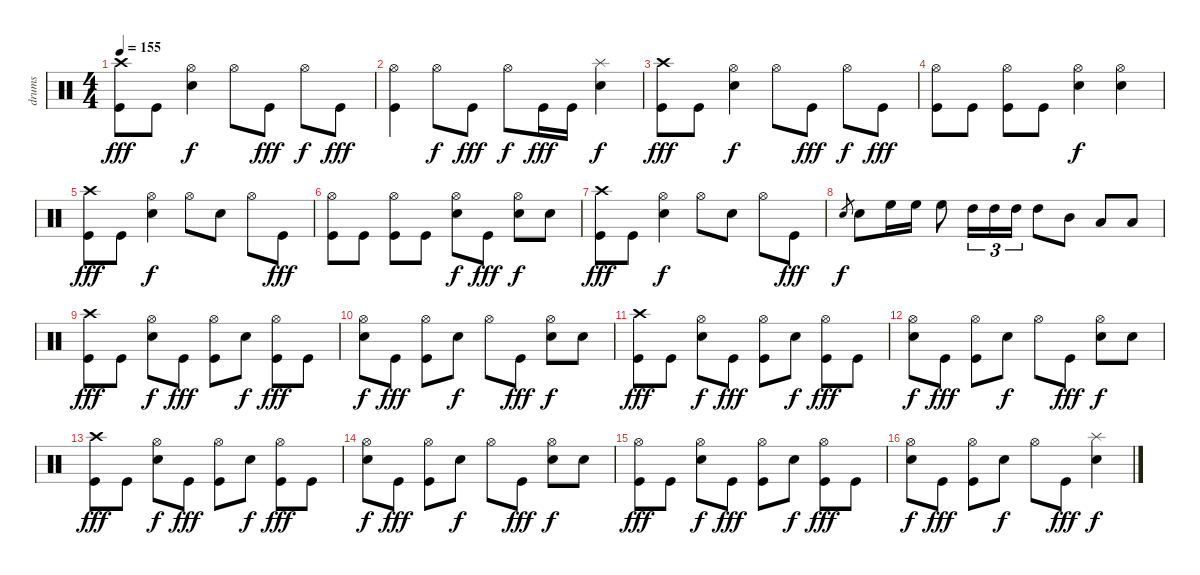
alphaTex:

\track ("drums" "drums") {instrument percussion}
\staff {score}
\articulation defaults
\ts (4 4)
\tempo 155
\clef neutral
\ks c
("Crash high (hit)" "Kick (hit)").8{dy fff} "Kick (hit)".8 ("Hi-Hat (open)" "Snare (hit) 2").4{dy f} "Hi-Hat (open)".8 "Kick (hit)".8{dy fff} "Hi-Hat (open)".8{dy f} "Kick (hit)".8{dy fff} |
("Hi-Hat (open)" "Kick (hit)").4 "Hi-Hat (open)".8{dy f} "Kick (hit)".8{dy fff} "Hi-Hat (open)".8{dy f} "Kick (hit)".16{dy fff} "Kick (hit)".16 ("Splash (hit)" "Snare (hit) 2").4{dy f} |
("Crash high (hit)" "Kick (hit)").8{dy fff} "Kick (hit)".8 ("Hi-Hat (open)" "Snare (hit) 2").4{dy f} "Hi-Hat (open)".8 "Kick (hit)".8{dy fff} "Hi-Hat (open)".8{dy f} "Kick (hit)".8{dy fff} |
("Hi-Hat (open)" "Kick (hit)").8 "Kick (hit)".8 ("Hi-Hat (open)" "Kick (hit)").8 "Kick (hit)".8 ("Hi-Hat (open)" "Snare (hit) 2").4{dy f} ("Hi-Hat (open)" "Snare (hit) 2").4 |
("Crash high (hit)" "Kick (hit)").8{dy fff} "Kick (hit)".8 ("Hi-Hat (open)" "Snare (hit) 2").4{dy f} "Hi-Hat (open)".8 "Snare (hit) 2".8 "Hi-Hat (open)".8 "Kick (hit)".8{dy fff} |
("Hi-Hat (open)" "Kick (hit)").8 "Kick (hit)".8 ("Hi-Hat (open)" "Kick (hit)").8 "Kick (hit)".8 ("Hi-Hat (open)" "Snare (hit) 2").8{dy f} "Kick (hit)".8{dy fff} ("Hi-Hat (open)" "Snare (hit) 2").8{dy f} "Snare (hit) 2".8 |
("Crash high (hit)" "Kick (hit)").8{dy fff} "Kick (hit)".8 ("Hi-Hat (open)" "Snare (hit) 2").4{dy f} "Hi-Hat (open)".8 "Snare (hit) 2".8 "Hi-Hat (open)".8 "Kick (hit)".8{dy fff} |
"Snare (hit) 2".8{gr dy f} "Snare (hit) 2".8 "High Floor Tom (hit)".16 "High Floor Tom (hit)".16 "High Floor Tom (hit)".8 "High Tom (hit)".16{tu (3 2)} "High Tom (hit)".16{tu (3 2)} "High Tom (hit)".16{tu (3 2)} "High Tom (hit)".8 "Mid Tom (hit)".8 "Low Tom (hit)".8 "Low Tom (hit)".8 |
("Crash high (hit)" "Kick (hit)").8{dy fff} "Kick (hit)".8 ("Hi-Hat (open)" "Snare (hit) 2").8{dy f} "Kick (hit)".8{dy fff} ("Hi-Hat (open)" "Kick (hit)").8 "Snare (hit) 2".8{dy f} ("Hi-Hat (open)" "Kick (hit)").8{dy fff} "Kick (hit)".8 |
("Hi-Hat (open)" "Snare (hit) 2").8{dy f} "Kick (hit)".8{dy fff} ("Hi-Hat (open)" "Kick (hit)").8 "Snare (hit) 2".8{dy f} "Hi-Hat (open)".8 "Kick (hit)".8{dy fff} ("Hi-Hat (open)" "Snare (hit) 2").8{dy f} "Snare (hit) 2".8 |
("Crash high (hit)" "Kick (hit)").8{dy fff} "Kick (hit)".8 ("Hi-Hat (open)" "Snare (hit) 2").8{dy f} "Kick (hit)".8{dy fff} ("Hi-Hat (open)" "Kick (hit)").8 "Snare (hit) 2".8{dy f} ("Hi-Hat (open)" "Kick (hit)").8{dy fff} "Kick (hit)".8 |
("Hi-Hat (open)" "Snare (hit) 2").8{dy f} "Kick (hit)".8{dy fff} ("Hi-Hat (open)" "Kick (hit)").8 "Snare (hit) 2".8{dy f} "Hi-Hat (open)".8 "Kick (hit)".8{dy fff} ("Hi-Hat (open)" "Snare (hit) 2").8{dy f} "Snare (hit) 2".8 |
("Crash high (hit)" "Kick (hit)").8{dy fff} "Kick (hit)".8 ("Hi-Hat (open)" "Snare (hit) 2").8{dy f} "Kick (hit)".8{dy fff} ("Hi-Hat (open)" "Kick (hit)").8 "Snare (hit) 2".8{dy f} ("Hi-Hat (open)" "Kick (hit)").8{dy fff} "Kick (hit)".8 |
("Hi-Hat (open)" "Snare (hit) 2").8{dy f} "Kick (hit)".8{dy fff} ("Hi-Hat (open)" "Kick (hit)").8 "Snare (hit) 2".8{dy f} "Hi-Hat (open)".8 "Kick (hit)".8{dy fff} ("Hi-Hat (open)" "Snare (hit) 2").8{dy f} "Snare (hit) 2".8 |
("Hi-Hat (open)" "Kick (hit)").8{dy fff} "Kick (hit)".8 ("Hi-Hat (open)" "Snare (hit) 2").8{dy f} "Kick (hit)".8{dy fff} ("Hi-Hat (open)" "Kick (hit)").8 "Snare (hit) 2".8{dy f} ("Hi-Hat (open)" "Kick (hit)").8{dy fff} "Kick (hit)".8 |
("Hi-Hat (open)" "Snare (hit) 2").8{dy f} "Kick (hit)".8{dy fff} ("Hi-Hat (open)" "Kick (hit)").8 "Snare (hit) 2".8{dy f} "Hi-Hat (open)".8 "Kick (hit)".8{dy fff} ("Splash (hit)" "Snare (hit) 2").4{dy f}
